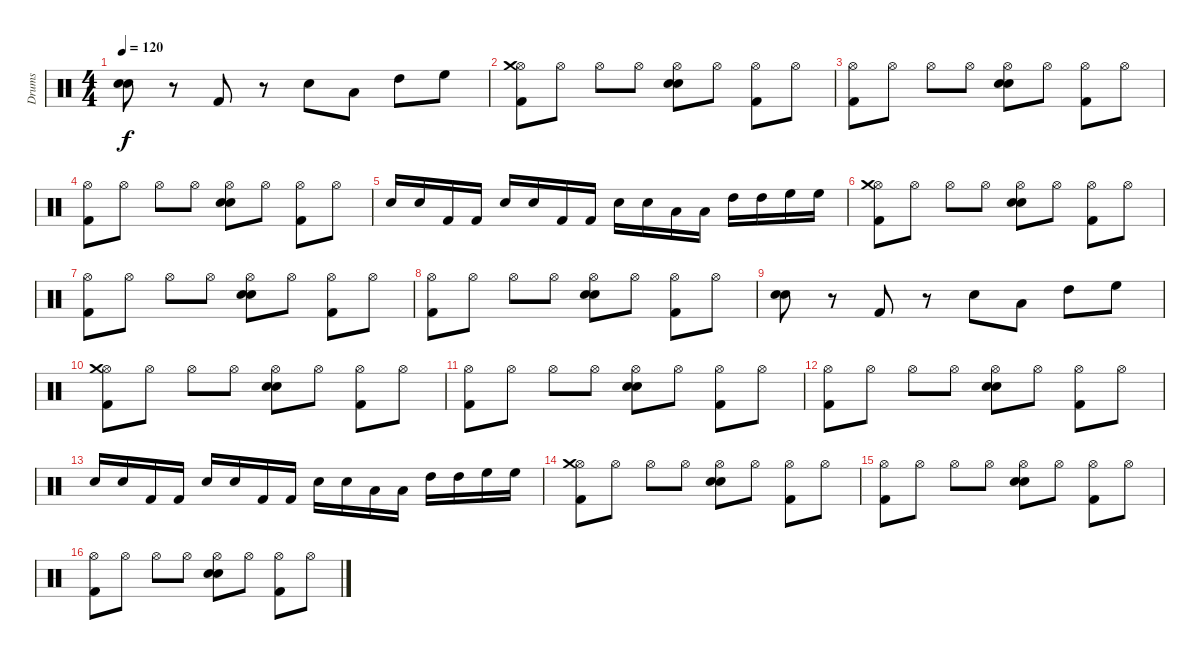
\track ("Drums" "Drums") {instrument percussion}
\staff {score}
\articulation defaults
\ts (4 4)
\tempo 120
\clef neutral
\ks c
("Snare (hit) 2" "Electric Snare (hit)").8{dy f} r.8 "Kick (hit) 2".8 r.8 "Snare (hit) 2".8 "Low Tom (hit)".8 "High Tom (hit)".8 "High Floor Tom (hit)".8 |
("Hi-Hat (open)" "Kick (hit) 2" "Crash medium (hit)").8 "Hi-Hat (open)".8 "Hi-Hat (open)".8 "Hi-Hat (open)".8 ("Hi-Hat (open)" "Snare (hit) 2" "Electric Snare (hit)").8 "Hi-Hat (open)".8 ("Hi-Hat (open)" "Kick (hit) 2").8 "Hi-Hat (open)".8 |
("Hi-Hat (open)" "Kick (hit) 2").8 "Hi-Hat (open)".8 "Hi-Hat (open)".8 "Hi-Hat (open)".8 ("Hi-Hat (open)" "Snare (hit) 2" "Electric Snare (hit)").8 "Hi-Hat (open)".8 ("Hi-Hat (open)" "Kick (hit) 2").8 "Hi-Hat (open)".8 |
("Hi-Hat (open)" "Kick (hit) 2").8 "Hi-Hat (open)".8 "Hi-Hat (open)".8 "Hi-Hat (open)".8 ("Hi-Hat (open)" "Snare (hit) 2" "Electric Snare (hit)").8 "Hi-Hat (open)".8 ("Hi-Hat (open)" "Kick (hit) 2").8 "Hi-Hat (open)".8 |
"Snare (hit) 2".16 "Snare (hit) 2".16 "Kick (hit) 2".16 "Kick (hit) 2".16 "Snare (hit) 2".16 "Snare (hit) 2".16 "Kick (hit) 2".16 "Kick (hit) 2".16 "Snare (hit) 2".16 "Snare (hit) 2".16 "Low Tom (hit)".16 "Low Tom (hit)".16 "High Tom (hit)".16 "High Tom (hit)".16 "High Floor Tom (hit)".16 "High Floor Tom (hit)".16 |
("Hi-Hat (open)" "Kick (hit) 2" "Crash medium (hit)").8 "Hi-Hat (open)".8 "Hi-Hat (open)".8 "Hi-Hat (open)".8 ("Hi-Hat (open)" "Snare (hit) 2" "Electric Snare (hit)").8 "Hi-Hat (open)".8 ("Hi-Hat (open)" "Kick (hit) 2").8 "Hi-Hat (open)".8 |
("Hi-Hat (open)" "Kick (hit) 2").8 "Hi-Hat (open)".8 "Hi-Hat (open)".8 "Hi-Hat (open)".8 ("Hi-Hat (open)" "Snare (hit) 2" "Electric Snare (hit)").8 "Hi-Hat (open)".8 ("Hi-Hat (open)" "Kick (hit) 2").8 "Hi-Hat (open)".8 |
("Hi-Hat (open)" "Kick (hit) 2").8 "Hi-Hat (open)".8 "Hi-Hat (open)".8 "Hi-Hat (open)".8 ("Hi-Hat (open)" "Snare (hit) 2" "Electric Snare (hit)").8 "Hi-Hat (open)".8 ("Hi-Hat (open)" "Kick (hit) 2").8 "Hi-Hat (open)".8 |
("Snare (hit) 2" "Electric Snare (hit)").8 r.8 "Kick (hit) 2".8 r.8 "Snare (hit) 2".8 "Low Tom (hit)".8 "High Tom (hit)".8 "High Floor Tom (hit)".8 |
("Hi-Hat (open)" "Kick (hit) 2" "Crash medium (hit)").8 "Hi-Hat (open)".8 "Hi-Hat (open)".8 "Hi-Hat (open)".8 ("Hi-Hat (open)" "Snare (hit) 2" "Electric Snare (hit)").8 "Hi-Hat (open)".8 ("Hi-Hat (open)" "Kick (hit) 2").8 "Hi-Hat (open)".8 |
("Hi-Hat (open)" "Kick (hit) 2").8 "Hi-Hat (open)".8 "Hi-Hat (open)".8 "Hi-Hat (open)".8 ("Hi-Hat (open)" "Snare (hit) 2" "Electric Snare (hit)").8 "Hi-Hat (open)".8 ("Hi-Hat (open)" "Kick (hit) 2").8 "Hi-Hat (open)".8 |
("Hi-Hat (open)" "Kick (hit) 2").8 "Hi-Hat (open)".8 "Hi-Hat (open)".8 "Hi-Hat (open)".8 ("Hi-Hat (open)" "Snare (hit) 2" "Electric Snare (hit)").8 "Hi-Hat (open)".8 ("Hi-Hat (open)" "Kick (hit) 2").8 "Hi-Hat (open)".8 |
"Snare (hit) 2".16 "Snare (hit) 2".16 "Kick (hit) 2".16 "Kick (hit) 2".16 "Snare (hit) 2".16 "Snare (hit) 2".16 "Kick (hit) 2".16 "Kick (hit) 2".16 "Snare (hit) 2".16 "Snare (hit) 2".16 "Low Tom (hit)".16 "Low Tom (hit)".16 "High Tom (hit)".16 "High Tom (hit)".16 "High Floor Tom (hit)".16 "High Floor Tom (hit)".16 |
("Hi-Hat (open)" "Kick (hit) 2" "Crash medium (hit)").8 "Hi-Hat (open)".8 "Hi-Hat (open)".8 "Hi-Hat (open)".8 ("Hi-Hat (open)" "Snare (hit) 2" "Electric Snare (hit)").8 "Hi-Hat (open)".8 ("Hi-Hat (open)" "Kick (hit) 2").8 "Hi-Hat (open)".8 |
("Hi-Hat (open)" "Kick (hit) 2").8 "Hi-Hat (open)".8 "Hi-Hat (open)".8 "Hi-Hat (open)".8 ("Hi-Hat (open)" "Snare (hit) 2" "Electric Snare (hit)").8 "Hi-Hat (open)".8 ("Hi-Hat (open)" "Kick (hit) 2").8 "Hi-Hat (open)".8 |
("Hi-Hat (open)" "Kick (hit) 2").8 "Hi-Hat (open)".8 "Hi-Hat (open)".8 "Hi-Hat (open)".8 ("Hi-Hat (open)" "Snare (hit) 2" "Electric Snare (hit)").8 "Hi-Hat (open)".8 ("Hi-Hat (open)" "Kick (hit) 2").8 "Hi-Hat (open)".8
